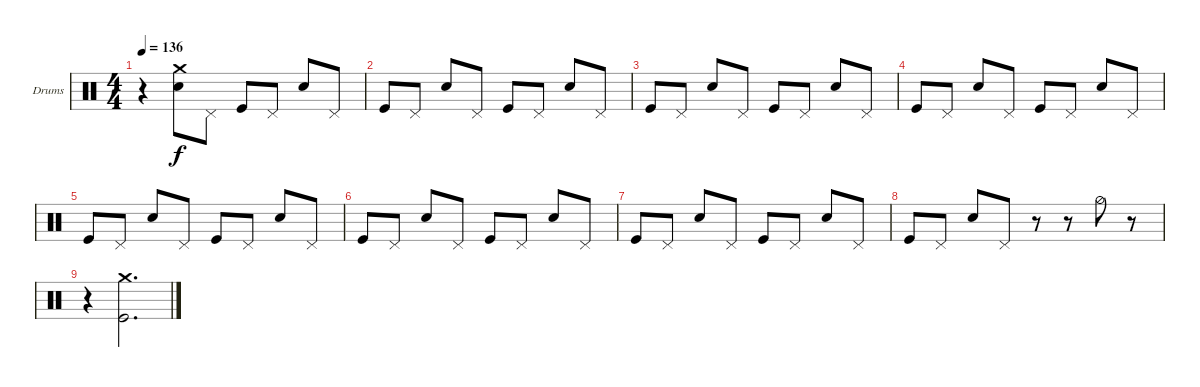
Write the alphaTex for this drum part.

\defaultSystemsLayout 4
\bracketExtendMode groupsimilarinstruments
\firstSystemTrackNameOrientation horizontal
\otherSystemsTrackNameOrientation horizontal
\track ("Е. Кулаков" "Drums") {instrument percussion}
\staff {score}
\articulation defaults
\ts (4 4)
\tempo 136
\clef neutral
\ks c
r.4{dy f} ("Snare (hit) 2" "Crash medium (hit)").8 "Pedal Hi-Hat (hit)".8 "Kick (hit)".8 "Pedal Hi-Hat (hit)".8 "Snare (hit) 2".8 "Pedal Hi-Hat (hit)".8 |
"Kick (hit)".8 "Pedal Hi-Hat (hit)".8 "Snare (hit) 2".8 "Pedal Hi-Hat (hit)".8 "Kick (hit)".8 "Pedal Hi-Hat (hit)".8 "Snare (hit) 2".8 "Pedal Hi-Hat (hit)".8 |
"Kick (hit)".8 "Pedal Hi-Hat (hit)".8 "Snare (hit) 2".8 "Pedal Hi-Hat (hit)".8 "Kick (hit)".8 "Pedal Hi-Hat (hit)".8 "Snare (hit) 2".8 "Pedal Hi-Hat (hit)".8 |
"Kick (hit)".8 "Pedal Hi-Hat (hit)".8 "Snare (hit) 2".8 "Pedal Hi-Hat (hit)".8 "Kick (hit)".8 "Pedal Hi-Hat (hit)".8 "Snare (hit) 2".8 "Pedal Hi-Hat (hit)".8 |
"Kick (hit)".8 "Pedal Hi-Hat (hit)".8 "Snare (hit) 2".8 "Pedal Hi-Hat (hit)".8 "Kick (hit)".8 "Pedal Hi-Hat (hit)".8 "Snare (hit) 2".8 "Pedal Hi-Hat (hit)".8 |
"Kick (hit)".8 "Pedal Hi-Hat (hit)".8 "Snare (hit) 2".8 "Pedal Hi-Hat (hit)".8 "Kick (hit)".8 "Pedal Hi-Hat (hit)".8 "Snare (hit) 2".8 "Pedal Hi-Hat (hit)".8 |
"Kick (hit)".8 "Pedal Hi-Hat (hit)".8 "Snare (hit) 2".8 "Pedal Hi-Hat (hit)".8 "Kick (hit)".8 "Pedal Hi-Hat (hit)".8 "Snare (hit) 2".8 "Pedal Hi-Hat (hit)".8 |
"Kick (hit)".8 "Pedal Hi-Hat (hit)".8 "Snare (hit) 2".8 "Pedal Hi-Hat (hit)".8 r.8 r.8 "Hi-Hat (half)".8 r.8 |
r.4 ("Kick (hit)" "Crash medium (hit)").2{d}
